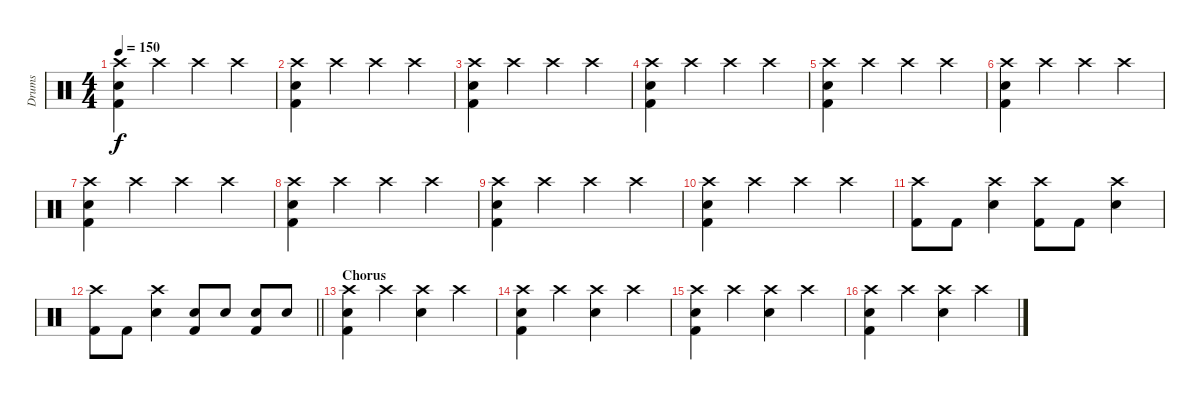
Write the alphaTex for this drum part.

\track ("Drums" "Drums") {instrument percussion}
\staff {score}
\articulation defaults
\ts (4 4)
\tempo 150
\clef neutral
\ks c
("Crash high (hit)" "Electric Snare (hit)" "Kick (hit) 2").4{dy f} "Crash high (hit)".4 "Crash high (hit)".4 "Crash high (hit)".4 |
("Crash high (hit)" "Electric Snare (hit)" "Kick (hit) 2").4 "Crash high (hit)".4 "Crash high (hit)".4 "Crash high (hit)".4 |
("Crash high (hit)" "Electric Snare (hit)" "Kick (hit) 2").4 "Crash high (hit)".4 "Crash high (hit)".4 "Crash high (hit)".4 |
("Crash high (hit)" "Electric Snare (hit)" "Kick (hit) 2").4 "Crash high (hit)".4 "Crash high (hit)".4 "Crash high (hit)".4 |
("Crash high (hit)" "Electric Snare (hit)" "Kick (hit) 2").4 "Crash high (hit)".4 "Crash high (hit)".4 "Crash high (hit)".4 |
("Crash high (hit)" "Electric Snare (hit)" "Kick (hit) 2").4 "Crash high (hit)".4 "Crash high (hit)".4 "Crash high (hit)".4 |
("Crash high (hit)" "Electric Snare (hit)" "Kick (hit) 2").4 "Crash high (hit)".4 "Crash high (hit)".4 "Crash high (hit)".4 |
("Crash high (hit)" "Electric Snare (hit)" "Kick (hit) 2").4 "Crash high (hit)".4 "Crash high (hit)".4 "Crash high (hit)".4 |
("Crash high (hit)" "Electric Snare (hit)" "Kick (hit) 2").4 "Crash high (hit)".4 "Crash high (hit)".4 "Crash high (hit)".4 |
("Crash high (hit)" "Electric Snare (hit)" "Kick (hit) 2").4 "Crash high (hit)".4 "Crash high (hit)".4 "Crash high (hit)".4 |
("Crash high (hit)" "Kick (hit) 2").8 "Kick (hit) 2".8 ("Crash high (hit)" "Electric Snare (hit)").4 ("Crash high (hit)" "Kick (hit) 2").8 "Kick (hit) 2".8 ("Crash high (hit)" "Electric Snare (hit)").4 |
\barLineRight lightlight
("Crash high (hit)" "Kick (hit) 2").8 "Kick (hit) 2".8 ("Crash high (hit)" "Electric Snare (hit)").4 ("Electric Snare (hit)" "Kick (hit) 2").8 "Electric Snare (hit)".8 ("Electric Snare (hit)" "Kick (hit) 2").8 "Electric Snare (hit)".8 |
\section ("" "Chorus")
("Crash high (hit)" "Electric Snare (hit)" "Kick (hit) 2").4 "Crash high (hit)".4 ("Crash high (hit)" "Electric Snare (hit)").4 "Crash high (hit)".4 |
("Crash high (hit)" "Electric Snare (hit)" "Kick (hit) 2").4 "Crash high (hit)".4 ("Crash high (hit)" "Electric Snare (hit)").4 "Crash high (hit)".4 |
("Crash high (hit)" "Electric Snare (hit)" "Kick (hit) 2").4 "Crash high (hit)".4 ("Crash high (hit)" "Electric Snare (hit)").4 "Crash high (hit)".4 |
("Crash high (hit)" "Electric Snare (hit)" "Kick (hit) 2").4 "Crash high (hit)".4 ("Crash high (hit)" "Electric Snare (hit)").4 "Crash high (hit)".4
